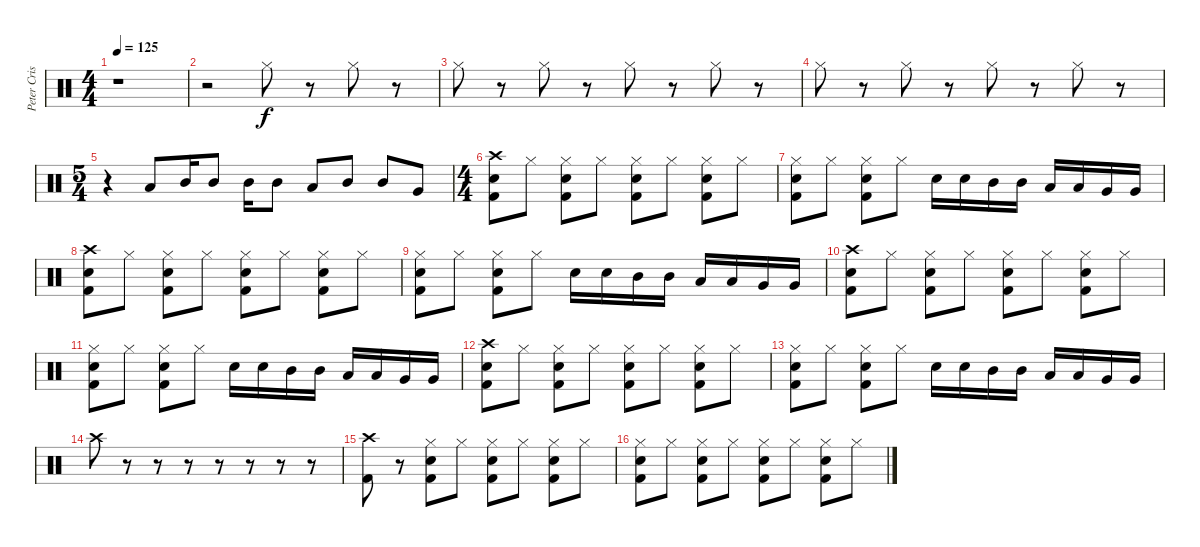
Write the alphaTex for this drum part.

\track ("Peter Criss" "Peter Cris") {instrument percussion}
\staff {score}
\articulation defaults
\ts (4 4)
\tempo 125
\clef neutral
\ks c
r.1{dy f} |
r.2 "Hi-Hat (closed)".8 r.8 "Hi-Hat (closed)".8 r.8 |
"Hi-Hat (closed)".8 r.8 "Hi-Hat (closed)".8 r.8 "Hi-Hat (closed)".8 r.8 "Hi-Hat (closed)".8 r.8 |
"Hi-Hat (closed)".8 r.8 "Hi-Hat (closed)".8 r.8 "Hi-Hat (closed)".8 r.8 "Hi-Hat (closed)".8 r.8 |
\ts (5 4)
r.4 "Low Tom (hit)".8 "Mid Tom (hit)".16 "Mid Tom (hit)".8 "Mid Tom (hit)".16 "Mid Tom (hit)".8 "Low Tom (hit)".8 "Mid Tom (hit)".8 "Mid Tom (hit)".8 "Very Low Tom (hit)".8 |
\ts (4 4)
("Crash high (hit)" "Electric Snare (hit)" "Kick (hit) 2").8 "Hi-Hat (closed)".8 ("Hi-Hat (closed)" "Electric Snare (hit)" "Kick (hit) 2").8 "Hi-Hat (closed)".8 ("Hi-Hat (closed)" "Electric Snare (hit)" "Kick (hit) 2").8 "Hi-Hat (closed)".8 ("Hi-Hat (closed)" "Electric Snare (hit)" "Kick (hit) 2").8 "Hi-Hat (closed)".8 |
("Hi-Hat (closed)" "Electric Snare (hit)" "Kick (hit) 2").8 "Hi-Hat (closed)".8 ("Hi-Hat (closed)" "Electric Snare (hit)" "Kick (hit) 2").8 "Hi-Hat (closed)".8 "Electric Snare (hit)".16 "Electric Snare (hit)".16 "Mid Tom (hit)".16 "Mid Tom (hit)".16 "Low Tom (hit)".16 "Low Tom (hit)".16 "Very Low Tom (hit)".16 "Very Low Tom (hit)".16 |
("Crash high (hit)" "Electric Snare (hit)" "Kick (hit) 2").8 "Hi-Hat (closed)".8 ("Hi-Hat (closed)" "Electric Snare (hit)" "Kick (hit) 2").8 "Hi-Hat (closed)".8 ("Hi-Hat (closed)" "Electric Snare (hit)" "Kick (hit) 2").8 "Hi-Hat (closed)".8 ("Hi-Hat (closed)" "Electric Snare (hit)" "Kick (hit) 2").8 "Hi-Hat (closed)".8 |
("Hi-Hat (closed)" "Electric Snare (hit)" "Kick (hit) 2").8 "Hi-Hat (closed)".8 ("Hi-Hat (closed)" "Electric Snare (hit)" "Kick (hit) 2").8 "Hi-Hat (closed)".8 "Electric Snare (hit)".16 "Electric Snare (hit)".16 "Mid Tom (hit)".16 "Mid Tom (hit)".16 "Low Tom (hit)".16 "Low Tom (hit)".16 "Very Low Tom (hit)".16 "Very Low Tom (hit)".16 |
("Crash high (hit)" "Electric Snare (hit)" "Kick (hit) 2").8 "Hi-Hat (closed)".8 ("Hi-Hat (closed)" "Electric Snare (hit)" "Kick (hit) 2").8 "Hi-Hat (closed)".8 ("Hi-Hat (closed)" "Electric Snare (hit)" "Kick (hit) 2").8 "Hi-Hat (closed)".8 ("Hi-Hat (closed)" "Electric Snare (hit)" "Kick (hit) 2").8 "Hi-Hat (closed)".8 |
("Hi-Hat (closed)" "Electric Snare (hit)" "Kick (hit) 2").8 "Hi-Hat (closed)".8 ("Hi-Hat (closed)" "Electric Snare (hit)" "Kick (hit) 2").8 "Hi-Hat (closed)".8 "Electric Snare (hit)".16 "Electric Snare (hit)".16 "Mid Tom (hit)".16 "Mid Tom (hit)".16 "Low Tom (hit)".16 "Low Tom (hit)".16 "Very Low Tom (hit)".16 "Very Low Tom (hit)".16 |
("Crash high (hit)" "Electric Snare (hit)" "Kick (hit) 2").8 "Hi-Hat (closed)".8 ("Hi-Hat (closed)" "Electric Snare (hit)" "Kick (hit) 2").8 "Hi-Hat (closed)".8 ("Hi-Hat (closed)" "Electric Snare (hit)" "Kick (hit) 2").8 "Hi-Hat (closed)".8 ("Hi-Hat (closed)" "Electric Snare (hit)" "Kick (hit) 2").8 "Hi-Hat (closed)".8 |
("Hi-Hat (closed)" "Electric Snare (hit)" "Kick (hit) 2").8 "Hi-Hat (closed)".8 ("Hi-Hat (closed)" "Electric Snare (hit)" "Kick (hit) 2").8 "Hi-Hat (closed)".8 "Electric Snare (hit)".16 "Electric Snare (hit)".16 "Mid Tom (hit)".16 "Mid Tom (hit)".16 "Low Tom (hit)".16 "Low Tom (hit)".16 "Very Low Tom (hit)".16 "Very Low Tom (hit)".16 |
"Crash high (hit)".8 r.8 r.8 r.8 r.8 r.8 r.8 r.8 |
("Crash high (hit)" "Kick (hit) 2").8 r.8 ("Hi-Hat (closed)" "Electric Snare (hit)" "Kick (hit) 2").8 "Hi-Hat (closed)".8 ("Hi-Hat (closed)" "Electric Snare (hit)" "Kick (hit) 2").8 "Hi-Hat (closed)".8 ("Hi-Hat (closed)" "Electric Snare (hit)" "Kick (hit) 2").8 "Hi-Hat (closed)".8 |
("Hi-Hat (closed)" "Electric Snare (hit)" "Kick (hit) 2").8 "Hi-Hat (closed)".8 ("Hi-Hat (closed)" "Electric Snare (hit)" "Kick (hit) 2").8 "Hi-Hat (closed)".8 ("Hi-Hat (closed)" "Electric Snare (hit)" "Kick (hit) 2").8 "Hi-Hat (closed)".8 ("Hi-Hat (closed)" "Electric Snare (hit)" "Kick (hit) 2").8 "Hi-Hat (closed)".8
